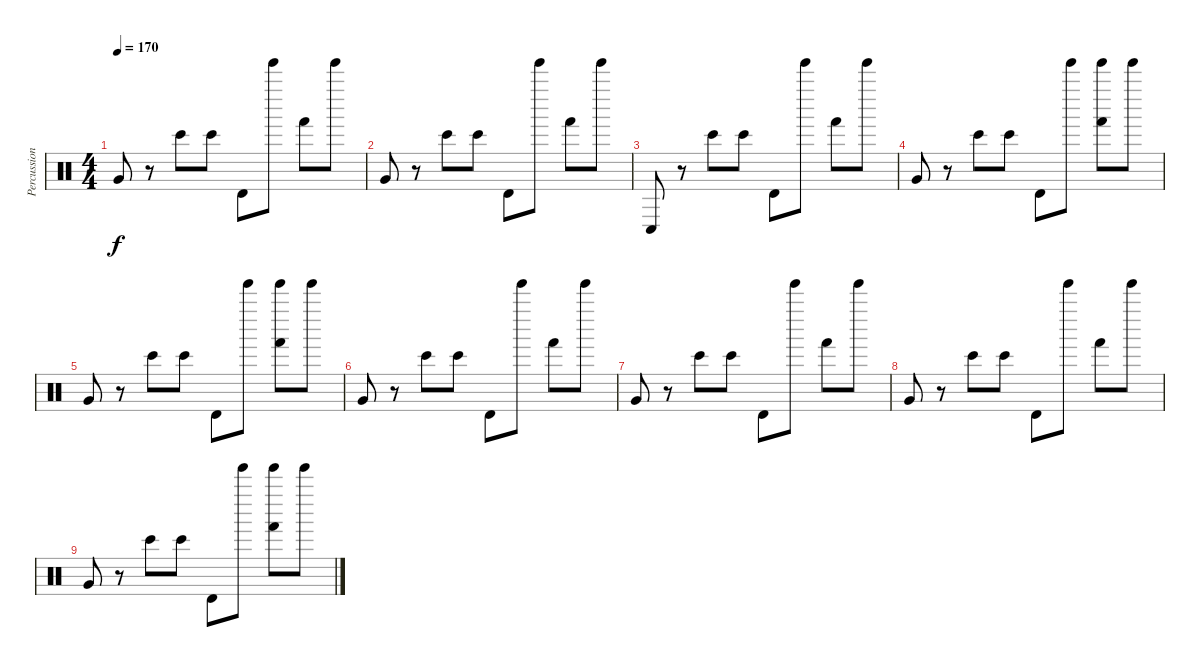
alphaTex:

\track ("Percussion" "Percussion") {instrument percussion}
\staff {score}
\articulation defaults
\ts (4 4)
\tempo 170
\clef neutral
\ks c "Very Low Tom (hit)".8{dy f}
r.8 "Bongo High (hit)".8 "Bongo High (hit)".8 "Timbale high (hit)".8 "Tinkle Bell (hit)".8 "Hand (hit)".8 "Tinkle Bell (hit)".8 |
"Very Low Tom (hit)".8 r.8 "Bongo High (hit)".8 "Bongo High (hit)".8 "Timbale high (hit)".8 "Tinkle Bell (hit)".8 "Hand (hit)".8 "Tinkle Bell (hit)".8 |
"Conga low (hit)".8 r.8 "Bongo High (hit)".8 "Bongo High (hit)".8 "Timbale high (hit)".8 "Tinkle Bell (hit)".8 "Hand (hit)".8 "Tinkle Bell (hit)".8 |
"Very Low Tom (hit)".8 r.8 "Bongo High (hit)".8 "Bongo High (hit)".8 "Timbale high (hit)".8 "Tinkle Bell (hit)".8 ("Hand (hit)" "Tinkle Bell (hit)").8 "Tinkle Bell (hit)".8 |
"Very Low Tom (hit)".8 r.8 "Bongo High (hit)".8 "Bongo High (hit)".8 "Timbale high (hit)".8 "Tinkle Bell (hit)".8 ("Hand (hit)" "Tinkle Bell (hit)").8 "Tinkle Bell (hit)".8 |
"Very Low Tom (hit)".8 r.8 "Bongo High (hit)".8 "Bongo High (hit)".8 "Timbale high (hit)".8 "Tinkle Bell (hit)".8 "Hand (hit)".8 "Tinkle Bell (hit)".8 |
"Very Low Tom (hit)".8 r.8 "Bongo High (hit)".8 "Bongo High (hit)".8 "Timbale high (hit)".8 "Tinkle Bell (hit)".8 "Hand (hit)".8 "Tinkle Bell (hit)".8 |
"Very Low Tom (hit)".8 r.8 "Bongo High (hit)".8 "Bongo High (hit)".8 "Timbale high (hit)".8 "Tinkle Bell (hit)".8 "Hand (hit)".8 "Tinkle Bell (hit)".8 |
"Very Low Tom (hit)".8 r.8 "Bongo High (hit)".8 "Bongo High (hit)".8 "Timbale high (hit)".8 "Tinkle Bell (hit)".8 ("Hand (hit)" "Tinkle Bell (hit)").8 "Tinkle Bell (hit)".8
